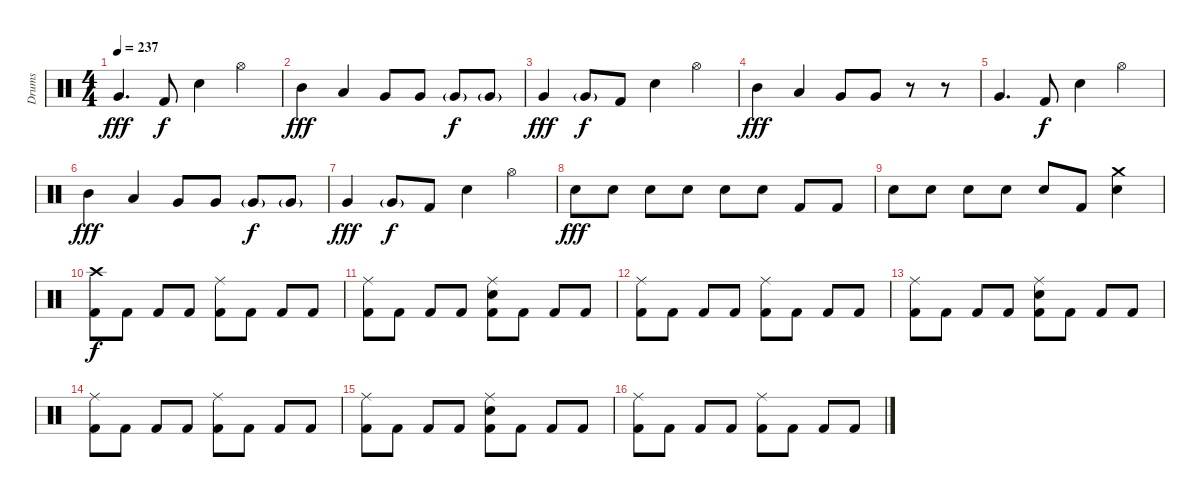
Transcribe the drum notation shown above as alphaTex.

\track ("Drums" "Drums") {instrument percussion}
\staff {score}
\articulation defaults
\ts (4 4)
\tempo 237
\clef neutral
\ks c "Very Low Tom (hit)".4{d dy fff} "Kick (hit) 2".8{dy f} "Electric Snare (hit)".4 "Hi-Hat (open)".4
|
"Mid Tom (hit)".4{dy fff} "Low Tom (hit)".4 "Very Low Tom (hit)".8 "Very Low Tom (hit)".8 "Very Low Tom (hit)"{g}.8{dy f} "Very Low Tom (hit)"{g}.8 |
"Very Low Tom (hit)".4{dy fff} "Very Low Tom (hit)"{g}.8{dy f} "Kick (hit) 2".8 "Electric Snare (hit)".4 "Hi-Hat (open)".4 |
"Mid Tom (hit)".4{dy fff} "Low Tom (hit)".4 "Very Low Tom (hit)".8 "Very Low Tom (hit)".8 r.8 r.8 |
"Very Low Tom (hit)".4{d} "Kick (hit) 2".8{dy f} "Electric Snare (hit)".4 "Hi-Hat (open)".4 |
"Mid Tom (hit)".4{dy fff} "Low Tom (hit)".4 "Very Low Tom (hit)".8 "Very Low Tom (hit)".8 "Very Low Tom (hit)"{g}.8{dy f} "Very Low Tom (hit)"{g}.8 |
"Very Low Tom (hit)".4{dy fff} "Very Low Tom (hit)"{g}.8{dy f} "Kick (hit) 2".8 "Electric Snare (hit)".4 "Hi-Hat (open)".4 |
"Electric Snare (hit)".8{dy fff} "Electric Snare (hit)".8 "Electric Snare (hit)".8 "Electric Snare (hit)".8 "Electric Snare (hit)".8 "Electric Snare (hit)".8 "Kick (hit) 2".8 "Kick (hit) 2".8 |
"Electric Snare (hit)".8 "Electric Snare (hit)".8 "Electric Snare (hit)".8 "Electric Snare (hit)".8 "Electric Snare (hit)".8 "Kick (hit) 2".8 ("Crash medium (hit)" "Electric Snare (hit)").4 |
("Crash high (hit)" "Kick (hit) 2").8{dy f} "Kick (hit) 2".8 "Kick (hit) 2".8 "Kick (hit) 2".8 ("Ride (middle)" "Kick (hit) 2").8 "Kick (hit) 2".8 "Kick (hit) 2".8 "Kick (hit) 2".8 |
("Ride (middle)" "Kick (hit) 2").8 "Kick (hit) 2".8 "Kick (hit) 2".8 "Kick (hit) 2".8 ("Ride (middle)" "Electric Snare (hit)" "Kick (hit) 2").8 "Kick (hit) 2".8 "Kick (hit) 2".8 "Kick (hit) 2".8 |
("Ride (middle)" "Kick (hit) 2").8 "Kick (hit) 2".8 "Kick (hit) 2".8 "Kick (hit) 2".8 ("Ride (middle)" "Kick (hit) 2").8 "Kick (hit) 2".8 "Kick (hit) 2".8 "Kick (hit) 2".8 |
("Ride (middle)" "Kick (hit) 2").8 "Kick (hit) 2".8 "Kick (hit) 2".8 "Kick (hit) 2".8 ("Ride (middle)" "Electric Snare (hit)" "Kick (hit) 2").8 "Kick (hit) 2".8 "Kick (hit) 2".8 "Kick (hit) 2".8 |
("Ride (middle)" "Kick (hit) 2").8 "Kick (hit) 2".8 "Kick (hit) 2".8 "Kick (hit) 2".8 ("Ride (middle)" "Kick (hit) 2").8 "Kick (hit) 2".8 "Kick (hit) 2".8 "Kick (hit) 2".8 |
("Ride (middle)" "Kick (hit) 2").8 "Kick (hit) 2".8 "Kick (hit) 2".8 "Kick (hit) 2".8 ("Ride (middle)" "Electric Snare (hit)" "Kick (hit) 2").8 "Kick (hit) 2".8 "Kick (hit) 2".8 "Kick (hit) 2".8 |
("Ride (middle)" "Kick (hit) 2").8 "Kick (hit) 2".8 "Kick (hit) 2".8 "Kick (hit) 2".8 ("Ride (middle)" "Kick (hit) 2").8 "Kick (hit) 2".8 "Kick (hit) 2".8 "Kick (hit) 2".8
